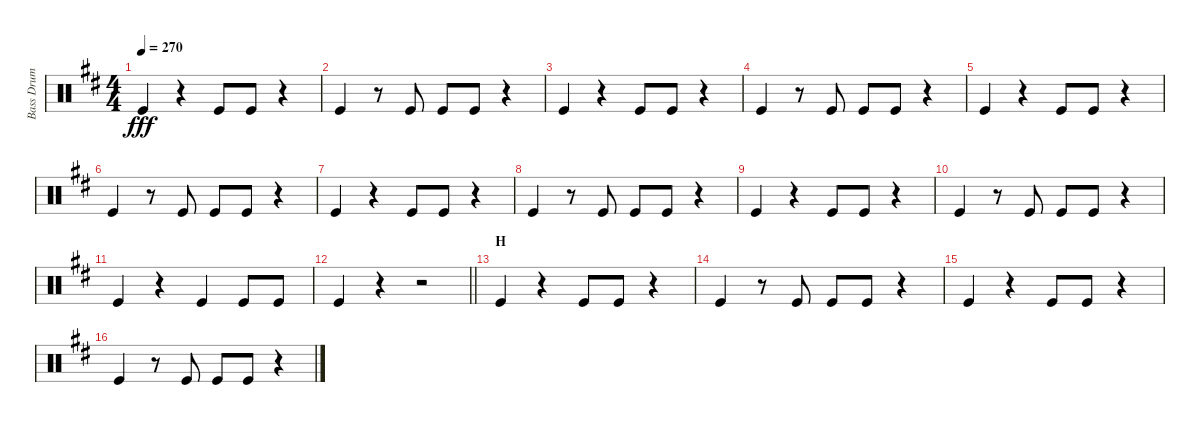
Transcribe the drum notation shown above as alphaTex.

\track ("Bass Drum" "Bass Drum") {instrument percussion}
\staff {score}
\articulation defaults
\ts (4 4)
\tempo 270
\clef neutral
\ks d "Kick (hit)".4{dy fff}
r.4 "Kick (hit)".8 "Kick (hit)".8 r.4 |
"Kick (hit)".4 r.8 "Kick (hit)".8 "Kick (hit)".8 "Kick (hit)".8 r.4 |
"Kick (hit)".4 r.4 "Kick (hit)".8 "Kick (hit)".8 r.4 |
"Kick (hit)".4 r.8 "Kick (hit)".8 "Kick (hit)".8 "Kick (hit)".8 r.4 |
"Kick (hit)".4 r.4 "Kick (hit)".8 "Kick (hit)".8 r.4 |
"Kick (hit)".4 r.8 "Kick (hit)".8 "Kick (hit)".8 "Kick (hit)".8 r.4 |
"Kick (hit)".4 r.4 "Kick (hit)".8 "Kick (hit)".8 r.4 |
"Kick (hit)".4 r.8 "Kick (hit)".8 "Kick (hit)".8 "Kick (hit)".8 r.4 |
"Kick (hit)".4 r.4 "Kick (hit)".8 "Kick (hit)".8 r.4 |
"Kick (hit)".4 r.8 "Kick (hit)".8 "Kick (hit)".8 "Kick (hit)".8 r.4 |
"Kick (hit)".4 r.4 "Kick (hit)".4 "Kick (hit)".8 "Kick (hit)".8 |
\barLineRight lightlight "Kick (hit)".4
r.4 r.2 |
\section ("" "H")
"Kick (hit)".4 r.4 "Kick (hit)".8 "Kick (hit)".8 r.4 |
"Kick (hit)".4 r.8 "Kick (hit)".8 "Kick (hit)".8 "Kick (hit)".8 r.4 |
"Kick (hit)".4 r.4 "Kick (hit)".8 "Kick (hit)".8 r.4 |
"Kick (hit)".4 r.8 "Kick (hit)".8 "Kick (hit)".8 "Kick (hit)".8 r.4
